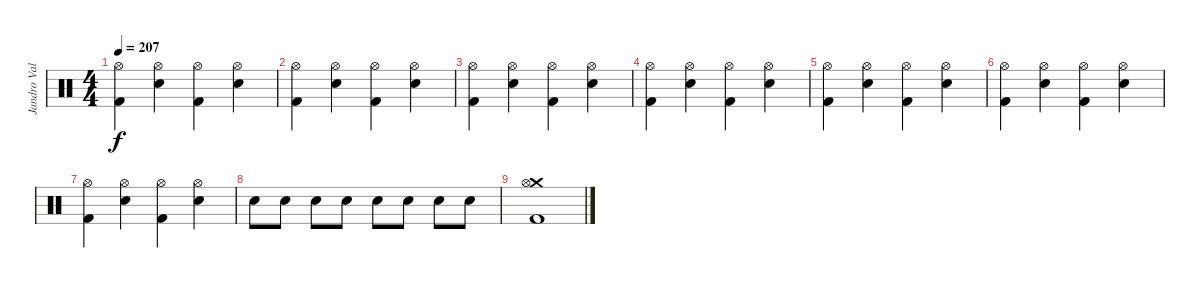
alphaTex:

\track ("Jandro Valázquez" "Jandro Val") {instrument percussion}
\staff {score}
\articulation defaults
\ts (4 4)
\tempo 207
\clef neutral
\ks c
("Hi-Hat (open)" "Kick (hit) 2").4{dy f} ("Hi-Hat (open)" "Snare (hit) 2").4 ("Hi-Hat (open)" "Kick (hit) 2").4 ("Hi-Hat (open)" "Snare (hit) 2").4 |
("Hi-Hat (open)" "Kick (hit) 2").4 ("Hi-Hat (open)" "Snare (hit) 2").4 ("Hi-Hat (open)" "Kick (hit) 2").4 ("Hi-Hat (open)" "Snare (hit) 2").4 |
("Hi-Hat (open)" "Kick (hit) 2").4 ("Hi-Hat (open)" "Snare (hit) 2").4 ("Hi-Hat (open)" "Kick (hit) 2").4 ("Hi-Hat (open)" "Snare (hit) 2").4 |
("Hi-Hat (open)" "Kick (hit) 2").4 ("Hi-Hat (open)" "Snare (hit) 2").4 ("Hi-Hat (open)" "Kick (hit) 2").4 ("Hi-Hat (open)" "Snare (hit) 2").4 |
("Hi-Hat (open)" "Kick (hit) 2").4 ("Hi-Hat (open)" "Snare (hit) 2").4 ("Hi-Hat (open)" "Kick (hit) 2").4 ("Hi-Hat (open)" "Snare (hit) 2").4 |
("Hi-Hat (open)" "Kick (hit) 2").4 ("Hi-Hat (open)" "Snare (hit) 2").4 ("Hi-Hat (open)" "Kick (hit) 2").4 ("Hi-Hat (open)" "Snare (hit) 2").4 |
("Hi-Hat (open)" "Kick (hit) 2").4 ("Hi-Hat (open)" "Snare (hit) 2").4 ("Hi-Hat (open)" "Kick (hit) 2").4 ("Hi-Hat (open)" "Snare (hit) 2").4 |
"Electric Snare (hit)".8 "Electric Snare (hit)".8 "Electric Snare (hit)".8 "Electric Snare (hit)".8 "Electric Snare (hit)".8 "Electric Snare (hit)".8 "Electric Snare (hit)".8 "Electric Snare (hit)".8 |
("Crash medium (hit)" "Hi-Hat (open)" "Kick (hit) 2").1
